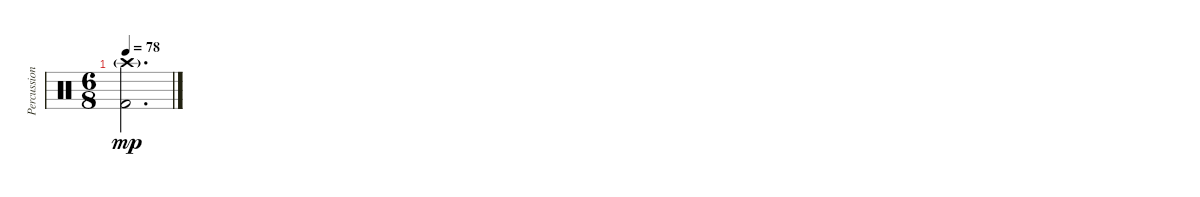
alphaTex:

\track ("Percussion" "Percussion") {instrument percussion}
\staff {score}
\articulation defaults
\ts (6 8)
\tempo 78
\clef neutral
\ks c
("Crash high (hit)"{g} "Kick (hit) 2").2{d dy mp}
